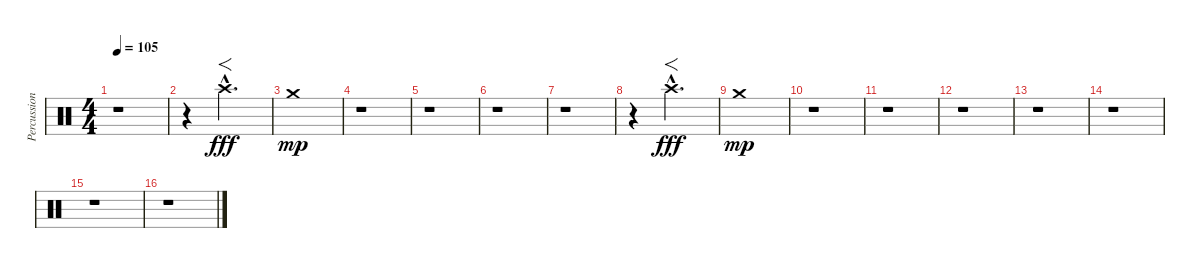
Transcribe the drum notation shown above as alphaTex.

\track ("Percussion" "Percussion") {instrument percussion}
\staff {score}
\articulation defaults
\ts (4 4)
\tempo 105
\clef neutral
\ks c
r.1{dy mp} |
r.4 "Crash high (hit)"{hac}.2{f d dy fff} |
"Crash medium (hit)".1{dy mp} |
r.1 |
r.1 |
r.1 |
r.1 |
r.4 "Crash high (hit)"{hac}.2{f d dy fff} |
"Crash medium (hit)".1{dy mp} |
r.1 |
r.1 |
r.1 |
r.1 |
r.1 |
r.1 |
r.1
